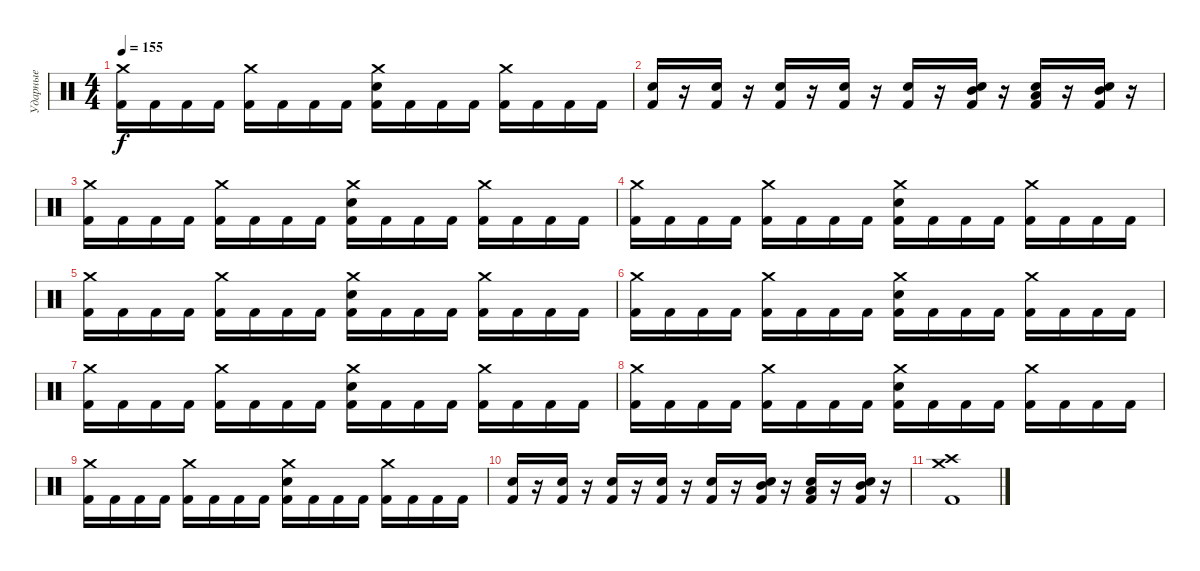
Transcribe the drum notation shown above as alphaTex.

\track ("Ударные" "Ударные") {instrument percussion}
\staff {score}
\articulation defaults
\ts (4 4)
\tempo 155
\clef neutral
\ks c
("Crash medium (hit)" "Kick (hit) 2").16{dy f} "Kick (hit) 2".16 "Kick (hit) 2".16 "Kick (hit) 2".16 ("Crash medium (hit)" "Kick (hit) 2").16 "Kick (hit) 2".16 "Kick (hit) 2".16 "Kick (hit) 2".16 ("Crash medium (hit)" "Snare (hit) 2" "Kick (hit) 2").16 "Kick (hit) 2".16 "Kick (hit) 2".16 "Kick (hit) 2".16 ("Crash medium (hit)" "Kick (hit) 2").16 "Kick (hit) 2".16 "Kick (hit) 2".16 "Kick (hit) 2".16 |
("Snare (hit) 2" "Kick (hit) 2").16 r.16 ("Snare (hit) 2" "Kick (hit) 2").16 r.16 ("Snare (hit) 2" "Kick (hit) 2").16 r.16 ("Snare (hit) 2" "Kick (hit) 2").16 r.16 ("Snare (hit) 2" "Kick (hit) 2").16 r.16 ("Snare (hit) 2" "Mid Tom (hit)" "Kick (hit) 2").16 r.16 ("Snare (hit) 2" "Low Tom (hit)" "Kick (hit) 2").16 r.16 ("Snare (hit) 2" "Mid Tom (hit)" "Kick (hit) 2").16 r.16 |
("Crash medium (hit)" "Kick (hit) 2").16 "Kick (hit) 2".16 "Kick (hit) 2".16 "Kick (hit) 2".16 ("Crash medium (hit)" "Kick (hit) 2").16 "Kick (hit) 2".16 "Kick (hit) 2".16 "Kick (hit) 2".16 ("Crash medium (hit)" "Snare (hit) 2" "Kick (hit) 2").16 "Kick (hit) 2".16 "Kick (hit) 2".16 "Kick (hit) 2".16 ("Crash medium (hit)" "Kick (hit) 2").16 "Kick (hit) 2".16 "Kick (hit) 2".16 "Kick (hit) 2".16 |
("Crash medium (hit)" "Kick (hit) 2").16 "Kick (hit) 2".16 "Kick (hit) 2".16 "Kick (hit) 2".16 ("Crash medium (hit)" "Kick (hit) 2").16 "Kick (hit) 2".16 "Kick (hit) 2".16 "Kick (hit) 2".16 ("Crash medium (hit)" "Snare (hit) 2" "Kick (hit) 2").16 "Kick (hit) 2".16 "Kick (hit) 2".16 "Kick (hit) 2".16 ("Crash medium (hit)" "Kick (hit) 2").16 "Kick (hit) 2".16 "Kick (hit) 2".16 "Kick (hit) 2".16 |
("Crash medium (hit)" "Kick (hit) 2").16 "Kick (hit) 2".16 "Kick (hit) 2".16 "Kick (hit) 2".16 ("Crash medium (hit)" "Kick (hit) 2").16 "Kick (hit) 2".16 "Kick (hit) 2".16 "Kick (hit) 2".16 ("Crash medium (hit)" "Snare (hit) 2" "Kick (hit) 2").16 "Kick (hit) 2".16 "Kick (hit) 2".16 "Kick (hit) 2".16 ("Crash medium (hit)" "Kick (hit) 2").16 "Kick (hit) 2".16 "Kick (hit) 2".16 "Kick (hit) 2".16 |
("Crash medium (hit)" "Kick (hit) 2").16 "Kick (hit) 2".16 "Kick (hit) 2".16 "Kick (hit) 2".16 ("Crash medium (hit)" "Kick (hit) 2").16 "Kick (hit) 2".16 "Kick (hit) 2".16 "Kick (hit) 2".16 ("Crash medium (hit)" "Snare (hit) 2" "Kick (hit) 2").16 "Kick (hit) 2".16 "Kick (hit) 2".16 "Kick (hit) 2".16 ("Crash medium (hit)" "Kick (hit) 2").16 "Kick (hit) 2".16 "Kick (hit) 2".16 "Kick (hit) 2".16 |
("Crash medium (hit)" "Kick (hit) 2").16 "Kick (hit) 2".16 "Kick (hit) 2".16 "Kick (hit) 2".16 ("Crash medium (hit)" "Kick (hit) 2").16 "Kick (hit) 2".16 "Kick (hit) 2".16 "Kick (hit) 2".16 ("Crash medium (hit)" "Snare (hit) 2" "Kick (hit) 2").16 "Kick (hit) 2".16 "Kick (hit) 2".16 "Kick (hit) 2".16 ("Crash medium (hit)" "Kick (hit) 2").16 "Kick (hit) 2".16 "Kick (hit) 2".16 "Kick (hit) 2".16 |
("Crash medium (hit)" "Kick (hit) 2").16 "Kick (hit) 2".16 "Kick (hit) 2".16 "Kick (hit) 2".16 ("Crash medium (hit)" "Kick (hit) 2").16 "Kick (hit) 2".16 "Kick (hit) 2".16 "Kick (hit) 2".16 ("Crash medium (hit)" "Snare (hit) 2" "Kick (hit) 2").16 "Kick (hit) 2".16 "Kick (hit) 2".16 "Kick (hit) 2".16 ("Crash medium (hit)" "Kick (hit) 2").16 "Kick (hit) 2".16 "Kick (hit) 2".16 "Kick (hit) 2".16 |
("Crash medium (hit)" "Kick (hit) 2").16 "Kick (hit) 2".16 "Kick (hit) 2".16 "Kick (hit) 2".16 ("Crash medium (hit)" "Kick (hit) 2").16 "Kick (hit) 2".16 "Kick (hit) 2".16 "Kick (hit) 2".16 ("Crash medium (hit)" "Snare (hit) 2" "Kick (hit) 2").16 "Kick (hit) 2".16 "Kick (hit) 2".16 "Kick (hit) 2".16 ("Crash medium (hit)" "Kick (hit) 2").16 "Kick (hit) 2".16 "Kick (hit) 2".16 "Kick (hit) 2".16 |
("Snare (hit) 2" "Kick (hit) 2").16 r.16 ("Snare (hit) 2" "Kick (hit) 2").16 r.16 ("Snare (hit) 2" "Kick (hit) 2").16 r.16 ("Snare (hit) 2" "Kick (hit) 2").16 r.16 ("Snare (hit) 2" "Kick (hit) 2").16 r.16 ("Snare (hit) 2" "Mid Tom (hit)" "Kick (hit) 2").16 r.16 ("Snare (hit) 2" "Low Tom (hit)" "Kick (hit) 2").16 r.16 ("Snare (hit) 2" "Mid Tom (hit)" "Kick (hit) 2").16 r.16 |
("Crash medium (hit)" "Crash high (hit)" "Kick (hit) 2").1
